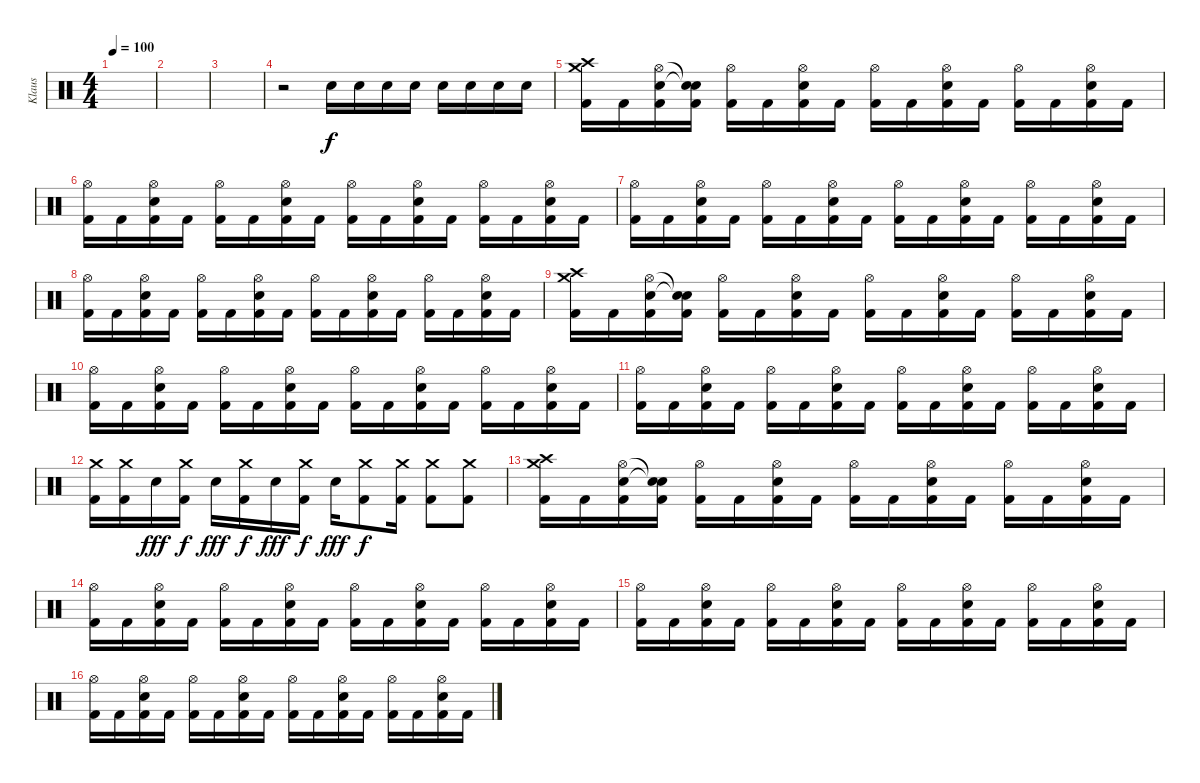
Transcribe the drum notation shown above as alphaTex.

\track ("Klaus" "Klaus") {instrument percussion}
\staff {score}
\articulation defaults
\ts (4 4)
\tempo 100
\clef neutral
\ks c
|
|
|
r.2 "Electric Snare (hit)".16 "Electric Snare (hit)".16 "Electric Snare (hit)".16 "Electric Snare (hit)".16 "Electric Snare (hit)".16 "Electric Snare (hit)".16 "Electric Snare (hit)".16 "Electric Snare (hit)".16 |
("Crash high (hit)" "Crash medium (hit)" "Kick (hit) 2").16 "Kick (hit) 2".16 ("Hi-Hat (open)" "Electric Snare (hit)" "Kick (hit) 2").16 ("Snare (hit)"{t} "Snare (hit)"{t} "Kick (hit) 2").16 ("Hi-Hat (open)" "Kick (hit) 2").16 "Kick (hit) 2".16 ("Hi-Hat (open)" "Electric Snare (hit)" "Kick (hit) 2").16 "Kick (hit) 2".16 ("Hi-Hat (open)" "Kick (hit) 2").16 "Kick (hit) 2".16 ("Hi-Hat (open)" "Electric Snare (hit)" "Kick (hit) 2").16 "Kick (hit) 2".16 ("Hi-Hat (open)" "Kick (hit) 2").16 "Kick (hit) 2".16 ("Hi-Hat (open)" "Electric Snare (hit)" "Kick (hit) 2").16 "Kick (hit) 2".16 |
("Hi-Hat (open)" "Kick (hit) 2").16 "Kick (hit) 2".16 ("Hi-Hat (open)" "Electric Snare (hit)" "Kick (hit) 2").16 "Kick (hit) 2".16 ("Hi-Hat (open)" "Kick (hit) 2").16 "Kick (hit) 2".16 ("Hi-Hat (open)" "Electric Snare (hit)" "Kick (hit) 2").16 "Kick (hit) 2".16 ("Hi-Hat (open)" "Kick (hit) 2").16 "Kick (hit) 2".16 ("Hi-Hat (open)" "Electric Snare (hit)" "Kick (hit) 2").16 "Kick (hit) 2".16 ("Hi-Hat (open)" "Kick (hit) 2").16 "Kick (hit) 2".16 ("Hi-Hat (open)" "Electric Snare (hit)" "Kick (hit) 2").16 "Kick (hit) 2".16 |
("Hi-Hat (open)" "Kick (hit) 2").16 "Kick (hit) 2".16 ("Hi-Hat (open)" "Electric Snare (hit)" "Kick (hit) 2").16 "Kick (hit) 2".16 ("Hi-Hat (open)" "Kick (hit) 2").16 "Kick (hit) 2".16 ("Hi-Hat (open)" "Electric Snare (hit)" "Kick (hit) 2").16 "Kick (hit) 2".16 ("Hi-Hat (open)" "Kick (hit) 2").16 "Kick (hit) 2".16 ("Hi-Hat (open)" "Electric Snare (hit)" "Kick (hit) 2").16 "Kick (hit) 2".16 ("Hi-Hat (open)" "Kick (hit) 2").16 "Kick (hit) 2".16 ("Hi-Hat (open)" "Electric Snare (hit)" "Kick (hit) 2").16 "Kick (hit) 2".16 |
("Hi-Hat (open)" "Kick (hit) 2").16 "Kick (hit) 2".16 ("Hi-Hat (open)" "Electric Snare (hit)" "Kick (hit) 2").16 "Kick (hit) 2".16 ("Hi-Hat (open)" "Kick (hit) 2").16 "Kick (hit) 2".16 ("Hi-Hat (open)" "Electric Snare (hit)" "Kick (hit) 2").16 "Kick (hit) 2".16 ("Hi-Hat (open)" "Kick (hit) 2").16 "Kick (hit) 2".16 ("Hi-Hat (open)" "Electric Snare (hit)" "Kick (hit) 2").16 "Kick (hit) 2".16 ("Hi-Hat (open)" "Kick (hit) 2").16 "Kick (hit) 2".16 ("Hi-Hat (open)" "Electric Snare (hit)" "Kick (hit) 2").16 "Kick (hit) 2".16 |
("Crash high (hit)" "Crash medium (hit)" "Kick (hit) 2").16 "Kick (hit) 2".16 ("Hi-Hat (open)" "Electric Snare (hit)" "Kick (hit) 2").16 ("Snare (hit)"{t} "Snare (hit)"{t} "Kick (hit) 2").16 ("Hi-Hat (open)" "Kick (hit) 2").16 "Kick (hit) 2".16 ("Hi-Hat (open)" "Electric Snare (hit)" "Kick (hit) 2").16 "Kick (hit) 2".16 ("Hi-Hat (open)" "Kick (hit) 2").16 "Kick (hit) 2".16 ("Hi-Hat (open)" "Electric Snare (hit)" "Kick (hit) 2").16 "Kick (hit) 2".16 ("Hi-Hat (open)" "Kick (hit) 2").16 "Kick (hit) 2".16 ("Hi-Hat (open)" "Electric Snare (hit)" "Kick (hit) 2").16 "Kick (hit) 2".16 |
("Hi-Hat (open)" "Kick (hit) 2").16 "Kick (hit) 2".16 ("Hi-Hat (open)" "Electric Snare (hit)" "Kick (hit) 2").16 "Kick (hit) 2".16 ("Hi-Hat (open)" "Kick (hit) 2").16 "Kick (hit) 2".16 ("Hi-Hat (open)" "Electric Snare (hit)" "Kick (hit) 2").16 "Kick (hit) 2".16 ("Hi-Hat (open)" "Kick (hit) 2").16 "Kick (hit) 2".16 ("Hi-Hat (open)" "Electric Snare (hit)" "Kick (hit) 2").16 "Kick (hit) 2".16 ("Hi-Hat (open)" "Kick (hit) 2").16 "Kick (hit) 2".16 ("Hi-Hat (open)" "Electric Snare (hit)" "Kick (hit) 2").16 "Kick (hit) 2".16 |
("Hi-Hat (open)" "Kick (hit) 2").16 "Kick (hit) 2".16 ("Hi-Hat (open)" "Electric Snare (hit)" "Kick (hit) 2").16 "Kick (hit) 2".16 ("Hi-Hat (open)" "Kick (hit) 2").16 "Kick (hit) 2".16 ("Hi-Hat (open)" "Electric Snare (hit)" "Kick (hit) 2").16 "Kick (hit) 2".16 ("Hi-Hat (open)" "Kick (hit) 2").16 "Kick (hit) 2".16 ("Hi-Hat (open)" "Electric Snare (hit)" "Kick (hit) 2").16 "Kick (hit) 2".16 ("Hi-Hat (open)" "Kick (hit) 2").16 "Kick (hit) 2".16 ("Hi-Hat (open)" "Electric Snare (hit)" "Kick (hit) 2").16 "Kick (hit) 2".16 |
("Crash medium (hit)" "Kick (hit) 2").16 ("Crash medium (hit)" "Kick (hit) 2").16 "Electric Snare (hit)".16{dy fff} ("Crash medium (hit)" "Kick (hit) 2").16{dy f} "Electric Snare (hit)".16{dy fff} ("Crash medium (hit)" "Kick (hit) 2").16{dy f} "Electric Snare (hit)".16{dy fff} ("Crash medium (hit)" "Kick (hit) 2").16{dy f} "Electric Snare (hit)".16{dy fff} ("Crash medium (hit)" "Kick (hit) 2").8{dy f} ("Crash medium (hit)" "Kick (hit) 2").16 ("Crash medium (hit)" "Kick (hit) 2").8 ("Crash medium (hit)" "Kick (hit) 2").8 |
("Crash high (hit)" "Crash medium (hit)" "Kick (hit) 2").16 "Kick (hit) 2".16 ("Hi-Hat (open)" "Electric Snare (hit)" "Kick (hit) 2").16 ("Snare (hit)"{t} "Snare (hit)"{t} "Kick (hit) 2").16 ("Hi-Hat (open)" "Kick (hit) 2").16 "Kick (hit) 2".16 ("Hi-Hat (open)" "Electric Snare (hit)" "Kick (hit) 2").16 "Kick (hit) 2".16 ("Hi-Hat (open)" "Kick (hit) 2").16 "Kick (hit) 2".16 ("Hi-Hat (open)" "Electric Snare (hit)" "Kick (hit) 2").16 "Kick (hit) 2".16 ("Hi-Hat (open)" "Kick (hit) 2").16 "Kick (hit) 2".16 ("Hi-Hat (open)" "Electric Snare (hit)" "Kick (hit) 2").16 "Kick (hit) 2".16 |
("Hi-Hat (open)" "Kick (hit) 2").16 "Kick (hit) 2".16 ("Hi-Hat (open)" "Electric Snare (hit)" "Kick (hit) 2").16 "Kick (hit) 2".16 ("Hi-Hat (open)" "Kick (hit) 2").16 "Kick (hit) 2".16 ("Hi-Hat (open)" "Electric Snare (hit)" "Kick (hit) 2").16 "Kick (hit) 2".16 ("Hi-Hat (open)" "Kick (hit) 2").16 "Kick (hit) 2".16 ("Hi-Hat (open)" "Electric Snare (hit)" "Kick (hit) 2").16 "Kick (hit) 2".16 ("Hi-Hat (open)" "Kick (hit) 2").16 "Kick (hit) 2".16 ("Hi-Hat (open)" "Electric Snare (hit)" "Kick (hit) 2").16 "Kick (hit) 2".16 |
("Hi-Hat (open)" "Kick (hit) 2").16 "Kick (hit) 2".16 ("Hi-Hat (open)" "Electric Snare (hit)" "Kick (hit) 2").16 "Kick (hit) 2".16 ("Hi-Hat (open)" "Kick (hit) 2").16 "Kick (hit) 2".16 ("Hi-Hat (open)" "Electric Snare (hit)" "Kick (hit) 2").16 "Kick (hit) 2".16 ("Hi-Hat (open)" "Kick (hit) 2").16 "Kick (hit) 2".16 ("Hi-Hat (open)" "Electric Snare (hit)" "Kick (hit) 2").16 "Kick (hit) 2".16 ("Hi-Hat (open)" "Kick (hit) 2").16 "Kick (hit) 2".16 ("Hi-Hat (open)" "Electric Snare (hit)" "Kick (hit) 2").16 "Kick (hit) 2".16 |
("Hi-Hat (open)" "Kick (hit) 2").16 "Kick (hit) 2".16 ("Hi-Hat (open)" "Electric Snare (hit)" "Kick (hit) 2").16 "Kick (hit) 2".16 ("Hi-Hat (open)" "Kick (hit) 2").16 "Kick (hit) 2".16 ("Hi-Hat (open)" "Electric Snare (hit)" "Kick (hit) 2").16 "Kick (hit) 2".16 ("Hi-Hat (open)" "Kick (hit) 2").16 "Kick (hit) 2".16 ("Hi-Hat (open)" "Electric Snare (hit)" "Kick (hit) 2").16 "Kick (hit) 2".16 ("Hi-Hat (open)" "Kick (hit) 2").16 "Kick (hit) 2".16 ("Hi-Hat (open)" "Electric Snare (hit)" "Kick (hit) 2").16 "Kick (hit) 2".16
